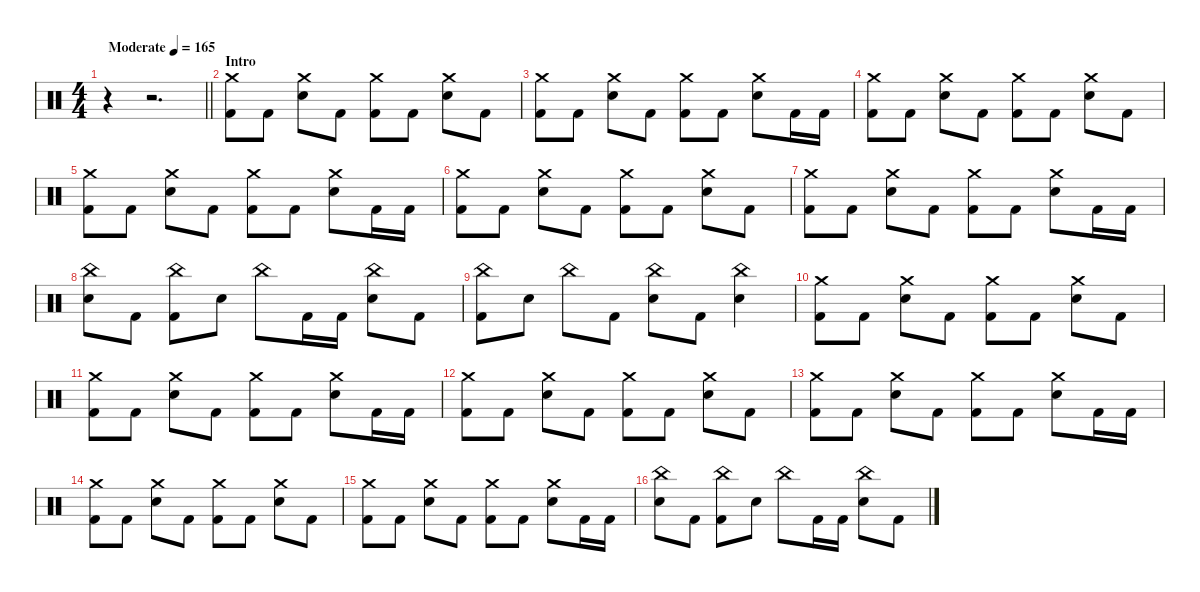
\defaultSystemsLayout 4
\hideDynamics
\bracketExtendMode nobrackets
\singleTrackTrackNamePolicy hidden
\multiTrackTrackNamePolicy hidden
\firstSystemTrackNameMode fullname
\firstSystemTrackNameOrientation horizontal
\otherSystemsTrackNameOrientation horizontal
\track ("Percussions" "drm.") {instrument percussion}
\staff {score}
\articulation defaults
\ts (4 4)
\beaming (8 2 2 2 2)
\tempo (165 "Moderate")
\clef neutral
\barLineRight lightlight
\ks c
r.4{dy f beam Down} r.2{d beam Down} |
\section ("" "Intro")
("Crash medium (hit)" "Kick (hit) 2").8{beam Down} "Kick (hit) 2".8{beam Down} ("Crash medium (hit)" "Snare (hit) 2").8{beam Down} "Kick (hit) 2".8{beam Down} ("Crash medium (hit)" "Kick (hit) 2").8{beam Down} "Kick (hit) 2".8{beam Down} ("Crash medium (hit)" "Snare (hit) 2").8{beam Down} "Kick (hit) 2".8{beam Down} |
("Crash medium (hit)" "Kick (hit) 2").8{beam Down} "Kick (hit) 2".8{beam Down} ("Crash medium (hit)" "Snare (hit) 2").8{beam Down} "Kick (hit) 2".8{beam Down} ("Crash medium (hit)" "Kick (hit) 2").8{beam Down} "Kick (hit) 2".8{beam Down} ("Crash medium (hit)" "Snare (hit) 2").8{beam Down} "Kick (hit) 2".16{beam Down} "Kick (hit) 2".16{beam Down} |
("Crash medium (hit)" "Kick (hit) 2").8{beam Down} "Kick (hit) 2".8{beam Down} ("Crash medium (hit)" "Snare (hit) 2").8{beam Down} "Kick (hit) 2".8{beam Down} ("Crash medium (hit)" "Kick (hit) 2").8{beam Down} "Kick (hit) 2".8{beam Down} ("Crash medium (hit)" "Snare (hit) 2").8{beam Down} "Kick (hit) 2".8{beam Down} |
("Crash medium (hit)" "Kick (hit) 2").8{beam Down} "Kick (hit) 2".8{beam Down} ("Crash medium (hit)" "Snare (hit) 2").8{beam Down} "Kick (hit) 2".8{beam Down} ("Crash medium (hit)" "Kick (hit) 2").8{beam Down} "Kick (hit) 2".8{beam Down} ("Crash medium (hit)" "Snare (hit) 2").8{beam Down} "Kick (hit) 2".16{beam Down} "Kick (hit) 2".16{beam Down} |
("Crash medium (hit)" "Kick (hit) 2").8{beam Down} "Kick (hit) 2".8{beam Down} ("Crash medium (hit)" "Snare (hit) 2").8{beam Down} "Kick (hit) 2".8{beam Down} ("Crash medium (hit)" "Kick (hit) 2").8{beam Down} "Kick (hit) 2".8{beam Down} ("Crash medium (hit)" "Snare (hit) 2").8{beam Down} "Kick (hit) 2".8{beam Down} |
("Crash medium (hit)" "Kick (hit) 2").8{beam Down} "Kick (hit) 2".8{beam Down} ("Crash medium (hit)" "Snare (hit) 2").8{beam Down} "Kick (hit) 2".8{beam Down} ("Crash medium (hit)" "Kick (hit) 2").8{beam Down} "Kick (hit) 2".8{beam Down} ("Crash medium (hit)" "Snare (hit) 2").8{beam Down} "Kick (hit) 2".16{beam Down} "Kick (hit) 2".16{beam Down} |
("China (hit)" "Snare (hit) 2").8{beam Down} "Kick (hit) 2".8{beam Down} ("China (hit)" "Kick (hit) 2").8{beam Down} "Snare (hit) 2".8{beam Down} "China (hit)".8{beam Down} "Kick (hit) 2".16{beam Down} "Kick (hit) 2".16{beam Down} ("China (hit)" "Snare (hit) 2").8{beam Down} "Kick (hit) 2".8{beam Down} |
("China (hit)" "Kick (hit) 2").8{beam Down} "Snare (hit) 2".8{beam Down} "China (hit)".8{beam Down} "Kick (hit) 2".8{beam Down} ("China (hit)" "Snare (hit) 2").8{beam Down} "Kick (hit) 2".8{beam Down} ("China (hit)" "Snare (hit) 2").4{beam Down} |
("Crash medium (hit)" "Kick (hit) 2").8{beam Down} "Kick (hit) 2".8{beam Down} ("Crash medium (hit)" "Snare (hit) 2").8{beam Down} "Kick (hit) 2".8{beam Down} ("Crash medium (hit)" "Kick (hit) 2").8{beam Down} "Kick (hit) 2".8{beam Down} ("Crash medium (hit)" "Snare (hit) 2").8{beam Down} "Kick (hit) 2".8{beam Down} |
("Crash medium (hit)" "Kick (hit) 2").8{beam Down} "Kick (hit) 2".8{beam Down} ("Crash medium (hit)" "Snare (hit) 2").8{beam Down} "Kick (hit) 2".8{beam Down} ("Crash medium (hit)" "Kick (hit) 2").8{beam Down} "Kick (hit) 2".8{beam Down} ("Crash medium (hit)" "Snare (hit) 2").8{beam Down} "Kick (hit) 2".16{beam Down} "Kick (hit) 2".16{beam Down} |
("Crash medium (hit)" "Kick (hit) 2").8{beam Down} "Kick (hit) 2".8{beam Down} ("Crash medium (hit)" "Snare (hit) 2").8{beam Down} "Kick (hit) 2".8{beam Down} ("Crash medium (hit)" "Kick (hit) 2").8{beam Down} "Kick (hit) 2".8{beam Down} ("Crash medium (hit)" "Snare (hit) 2").8{beam Down} "Kick (hit) 2".8{beam Down} |
("Crash medium (hit)" "Kick (hit) 2").8{beam Down} "Kick (hit) 2".8{beam Down} ("Crash medium (hit)" "Snare (hit) 2").8{beam Down} "Kick (hit) 2".8{beam Down} ("Crash medium (hit)" "Kick (hit) 2").8{beam Down} "Kick (hit) 2".8{beam Down} ("Crash medium (hit)" "Snare (hit) 2").8{beam Down} "Kick (hit) 2".16{beam Down} "Kick (hit) 2".16{beam Down} |
("Crash medium (hit)" "Kick (hit) 2").8{beam Down} "Kick (hit) 2".8{beam Down} ("Crash medium (hit)" "Snare (hit) 2").8{beam Down} "Kick (hit) 2".8{beam Down} ("Crash medium (hit)" "Kick (hit) 2").8{beam Down} "Kick (hit) 2".8{beam Down} ("Crash medium (hit)" "Snare (hit) 2").8{beam Down} "Kick (hit) 2".8{beam Down} |
("Crash medium (hit)" "Kick (hit) 2").8{beam Down} "Kick (hit) 2".8{beam Down} ("Crash medium (hit)" "Snare (hit) 2").8{beam Down} "Kick (hit) 2".8{beam Down} ("Crash medium (hit)" "Kick (hit) 2").8{beam Down} "Kick (hit) 2".8{beam Down} ("Crash medium (hit)" "Snare (hit) 2").8{beam Down} "Kick (hit) 2".16{beam Down} "Kick (hit) 2".16{beam Down} |
("China (hit)" "Snare (hit) 2").8{beam Down} "Kick (hit) 2".8{beam Down} ("China (hit)" "Kick (hit) 2").8{beam Down} "Snare (hit) 2".8{beam Down} "China (hit)".8{beam Down} "Kick (hit) 2".16{beam Down} "Kick (hit) 2".16{beam Down} ("China (hit)" "Snare (hit) 2").8{beam Down} "Kick (hit) 2".8{beam Down}
